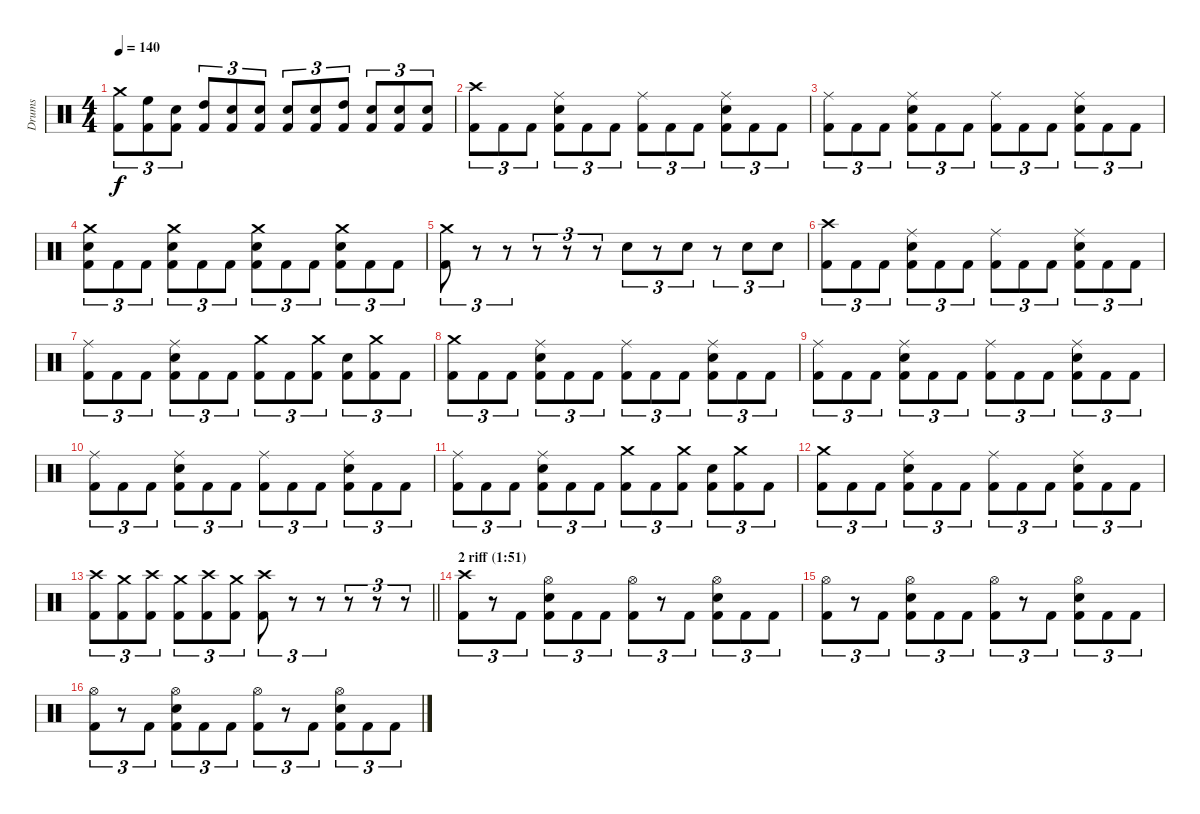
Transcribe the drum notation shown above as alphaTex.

\track ("Drums" "Drums") {instrument percussion}
\staff {score}
\articulation defaults
\ts (4 4)
\tempo 140
\clef neutral
\ks c
("Crash medium (hit)" "Kick (hit) 2").8{tu (3 2) dy f} ("High Floor Tom (hit)" "Kick (hit) 2").8{tu (3 2)} ("Snare (hit) 2" "Kick (hit) 2").8{tu (3 2)} ("High Tom (hit)" "Kick (hit) 2").8{tu (3 2)} ("Snare (hit) 2" "Kick (hit) 2").8{tu (3 2)} ("Snare (hit) 2" "Kick (hit) 2").8{tu (3 2)} ("Snare (hit) 2" "Kick (hit) 2").8{tu (3 2)} ("Snare (hit) 2" "Kick (hit) 2").8{tu (3 2)} ("High Tom (hit)" "Kick (hit) 2").8{tu (3 2)} ("Snare (hit) 2" "Kick (hit) 2").8{tu (3 2)} ("Snare (hit) 2" "Kick (hit) 2").8{tu (3 2)} ("Snare (hit) 2" "Kick (hit) 2").8{tu (3 2)} |
("Crash high (hit)" "Kick (hit) 2").8{tu (3 2)} "Kick (hit) 2".8{tu (3 2)} "Kick (hit) 2".8{tu (3 2)} ("Ride (middle)" "Snare (hit) 2" "Kick (hit) 2").8{tu (3 2)} "Kick (hit) 2".8{tu (3 2)} "Kick (hit) 2".8{tu (3 2)} ("Ride (middle)" "Kick (hit) 2").8{tu (3 2)} "Kick (hit) 2".8{tu (3 2)} "Kick (hit) 2".8{tu (3 2)} ("Ride (middle)" "Snare (hit) 2" "Kick (hit) 2").8{tu (3 2)} "Kick (hit) 2".8{tu (3 2)} "Kick (hit) 2".8{tu (3 2)} |
("Ride (middle)" "Kick (hit) 2").8{tu (3 2)} "Kick (hit) 2".8{tu (3 2)} "Kick (hit) 2".8{tu (3 2)} ("Ride (middle)" "Snare (hit) 2" "Kick (hit) 2").8{tu (3 2)} "Kick (hit) 2".8{tu (3 2)} "Kick (hit) 2".8{tu (3 2)} ("Ride (middle)" "Kick (hit) 2").8{tu (3 2)} "Kick (hit) 2".8{tu (3 2)} "Kick (hit) 2".8{tu (3 2)} ("Ride (middle)" "Snare (hit) 2" "Kick (hit) 2").8{tu (3 2)} "Kick (hit) 2".8{tu (3 2)} "Kick (hit) 2".8{tu (3 2)} |
("Crash medium (hit)" "Snare (hit) 2" "Kick (hit) 2").8{tu (3 2)} "Kick (hit) 2".8{tu (3 2)} "Kick (hit) 2".8{tu (3 2)} ("Crash medium (hit)" "Snare (hit) 2" "Kick (hit) 2").8{tu (3 2)} "Kick (hit) 2".8{tu (3 2)} "Kick (hit) 2".8{tu (3 2)} ("Crash medium (hit)" "Snare (hit) 2" "Kick (hit) 2").8{tu (3 2)} "Kick (hit) 2".8{tu (3 2)} "Kick (hit) 2".8{tu (3 2)} ("Crash medium (hit)" "Snare (hit) 2" "Kick (hit) 2").8{tu (3 2)} "Kick (hit) 2".8{tu (3 2)} "Kick (hit) 2".8{tu (3 2)} |
("Crash medium (hit)" "Kick (hit) 2").8{tu (3 2)} r.8{tu (3 2)} r.8{tu (3 2)} r.8{tu (3 2)} r.8{tu (3 2)} r.8{tu (3 2)} "Snare (hit) 2".8{tu (3 2)} r.8{tu (3 2)} "Snare (hit) 2".8{tu (3 2)} r.8{tu (3 2)} "Snare (hit) 2".8{tu (3 2)} "Snare (hit) 2".8{tu (3 2)} |
("Crash high (hit)" "Kick (hit) 2").8{tu (3 2)} "Kick (hit) 2".8{tu (3 2)} "Kick (hit) 2".8{tu (3 2)} ("Ride (middle)" "Snare (hit) 2" "Kick (hit) 2").8{tu (3 2)} "Kick (hit) 2".8{tu (3 2)} "Kick (hit) 2".8{tu (3 2)} ("Ride (middle)" "Kick (hit) 2").8{tu (3 2)} "Kick (hit) 2".8{tu (3 2)} "Kick (hit) 2".8{tu (3 2)} ("Ride (middle)" "Snare (hit) 2" "Kick (hit) 2").8{tu (3 2)} "Kick (hit) 2".8{tu (3 2)} "Kick (hit) 2".8{tu (3 2)} |
("Ride (middle)" "Kick (hit) 2").8{tu (3 2)} "Kick (hit) 2".8{tu (3 2)} "Kick (hit) 2".8{tu (3 2)} ("Ride (middle)" "Snare (hit) 2" "Kick (hit) 2").8{tu (3 2)} "Kick (hit) 2".8{tu (3 2)} "Kick (hit) 2".8{tu (3 2)} ("Crash medium (hit)" "Kick (hit) 2").8{tu (3 2)} "Kick (hit) 2".8{tu (3 2)} ("Crash medium (hit)" "Kick (hit) 2").8{tu (3 2)} ("Snare (hit) 2" "Kick (hit) 2").8{tu (3 2)} ("Crash medium (hit)" "Kick (hit) 2").8{tu (3 2)} "Kick (hit) 2".8{tu (3 2)} |
("Crash medium (hit)" "Kick (hit) 2").8{tu (3 2)} "Kick (hit) 2".8{tu (3 2)} "Kick (hit) 2".8{tu (3 2)} ("Ride (middle)" "Snare (hit) 2" "Kick (hit) 2").8{tu (3 2)} "Kick (hit) 2".8{tu (3 2)} "Kick (hit) 2".8{tu (3 2)} ("Ride (middle)" "Kick (hit) 2").8{tu (3 2)} "Kick (hit) 2".8{tu (3 2)} "Kick (hit) 2".8{tu (3 2)} ("Ride (middle)" "Snare (hit) 2" "Kick (hit) 2").8{tu (3 2)} "Kick (hit) 2".8{tu (3 2)} "Kick (hit) 2".8{tu (3 2)} |
("Ride (middle)" "Kick (hit) 2").8{tu (3 2)} "Kick (hit) 2".8{tu (3 2)} "Kick (hit) 2".8{tu (3 2)} ("Ride (middle)" "Snare (hit) 2" "Kick (hit) 2").8{tu (3 2)} "Kick (hit) 2".8{tu (3 2)} "Kick (hit) 2".8{tu (3 2)} ("Ride (middle)" "Kick (hit) 2").8{tu (3 2)} "Kick (hit) 2".8{tu (3 2)} "Kick (hit) 2".8{tu (3 2)} ("Ride (middle)" "Snare (hit) 2" "Kick (hit) 2").8{tu (3 2)} "Kick (hit) 2".8{tu (3 2)} "Kick (hit) 2".8{tu (3 2)} |
("Ride (middle)" "Kick (hit) 2").8{tu (3 2)} "Kick (hit) 2".8{tu (3 2)} "Kick (hit) 2".8{tu (3 2)} ("Ride (middle)" "Snare (hit) 2" "Kick (hit) 2").8{tu (3 2)} "Kick (hit) 2".8{tu (3 2)} "Kick (hit) 2".8{tu (3 2)} ("Ride (middle)" "Kick (hit) 2").8{tu (3 2)} "Kick (hit) 2".8{tu (3 2)} "Kick (hit) 2".8{tu (3 2)} ("Ride (middle)" "Snare (hit) 2" "Kick (hit) 2").8{tu (3 2)} "Kick (hit) 2".8{tu (3 2)} "Kick (hit) 2".8{tu (3 2)} |
("Ride (middle)" "Kick (hit) 2").8{tu (3 2)} "Kick (hit) 2".8{tu (3 2)} "Kick (hit) 2".8{tu (3 2)} ("Ride (middle)" "Snare (hit) 2" "Kick (hit) 2").8{tu (3 2)} "Kick (hit) 2".8{tu (3 2)} "Kick (hit) 2".8{tu (3 2)} ("Crash medium (hit)" "Kick (hit) 2").8{tu (3 2)} "Kick (hit) 2".8{tu (3 2)} ("Crash medium (hit)" "Kick (hit) 2").8{tu (3 2)} ("Snare (hit) 2" "Kick (hit) 2").8{tu (3 2)} ("Crash medium (hit)" "Kick (hit) 2").8{tu (3 2)} "Kick (hit) 2".8{tu (3 2)} |
("Crash medium (hit)" "Kick (hit) 2").8{tu (3 2)} "Kick (hit) 2".8{tu (3 2)} "Kick (hit) 2".8{tu (3 2)} ("Ride (middle)" "Snare (hit) 2" "Kick (hit) 2").8{tu (3 2)} "Kick (hit) 2".8{tu (3 2)} "Kick (hit) 2".8{tu (3 2)} ("Ride (middle)" "Kick (hit) 2").8{tu (3 2)} "Kick (hit) 2".8{tu (3 2)} "Kick (hit) 2".8{tu (3 2)} ("Ride (middle)" "Snare (hit) 2" "Kick (hit) 2").8{tu (3 2)} "Kick (hit) 2".8{tu (3 2)} "Kick (hit) 2".8{tu (3 2)} |
\barLineRight lightlight
("Crash high (hit)" "Kick (hit) 2").8{tu (3 2)} ("Crash medium (hit)" "Kick (hit) 2").8{tu (3 2)} ("Crash high (hit)" "Kick (hit) 2").8{tu (3 2)} ("Crash medium (hit)" "Kick (hit) 2").8{tu (3 2)} ("Crash high (hit)" "Kick (hit) 2").8{tu (3 2)} ("Crash medium (hit)" "Kick (hit) 2").8{tu (3 2)} ("Crash high (hit)" "Kick (hit) 2").8{tu (3 2)} r.8{tu (3 2)} r.8{tu (3 2)} r.8{tu (3 2)} r.8{tu (3 2)} r.8{tu (3 2)} |
\section ("" "2 riff (1:51)")
("Crash high (hit)" "Kick (hit) 2").8{tu (3 2)} r.8{tu (3 2)} "Kick (hit) 2".8{tu (3 2)} ("Hi-Hat (open)" "Snare (hit) 2" "Kick (hit) 2").8{tu (3 2)} "Kick (hit) 2".8{tu (3 2)} "Kick (hit) 2".8{tu (3 2)} ("Hi-Hat (open)" "Kick (hit) 2").8{tu (3 2)} r.8{tu (3 2)} "Kick (hit) 2".8{tu (3 2)} ("Hi-Hat (open)" "Snare (hit) 2" "Kick (hit) 2").8{tu (3 2)} "Kick (hit) 2".8{tu (3 2)} "Kick (hit) 2".8{tu (3 2)} |
("Hi-Hat (open)" "Kick (hit) 2").8{tu (3 2)} r.8{tu (3 2)} "Kick (hit) 2".8{tu (3 2)} ("Hi-Hat (open)" "Snare (hit) 2" "Kick (hit) 2").8{tu (3 2)} "Kick (hit) 2".8{tu (3 2)} "Kick (hit) 2".8{tu (3 2)} ("Hi-Hat (open)" "Kick (hit) 2").8{tu (3 2)} r.8{tu (3 2)} "Kick (hit) 2".8{tu (3 2)} ("Hi-Hat (open)" "Snare (hit) 2" "Kick (hit) 2").8{tu (3 2)} "Kick (hit) 2".8{tu (3 2)} "Kick (hit) 2".8{tu (3 2)} |
("Hi-Hat (open)" "Kick (hit) 2").8{tu (3 2)} r.8{tu (3 2)} "Kick (hit) 2".8{tu (3 2)} ("Hi-Hat (open)" "Snare (hit) 2" "Kick (hit) 2").8{tu (3 2)} "Kick (hit) 2".8{tu (3 2)} "Kick (hit) 2".8{tu (3 2)} ("Hi-Hat (open)" "Kick (hit) 2").8{tu (3 2)} r.8{tu (3 2)} "Kick (hit) 2".8{tu (3 2)} ("Hi-Hat (open)" "Snare (hit) 2" "Kick (hit) 2").8{tu (3 2)} "Kick (hit) 2".8{tu (3 2)} "Kick (hit) 2".8{tu (3 2)}
